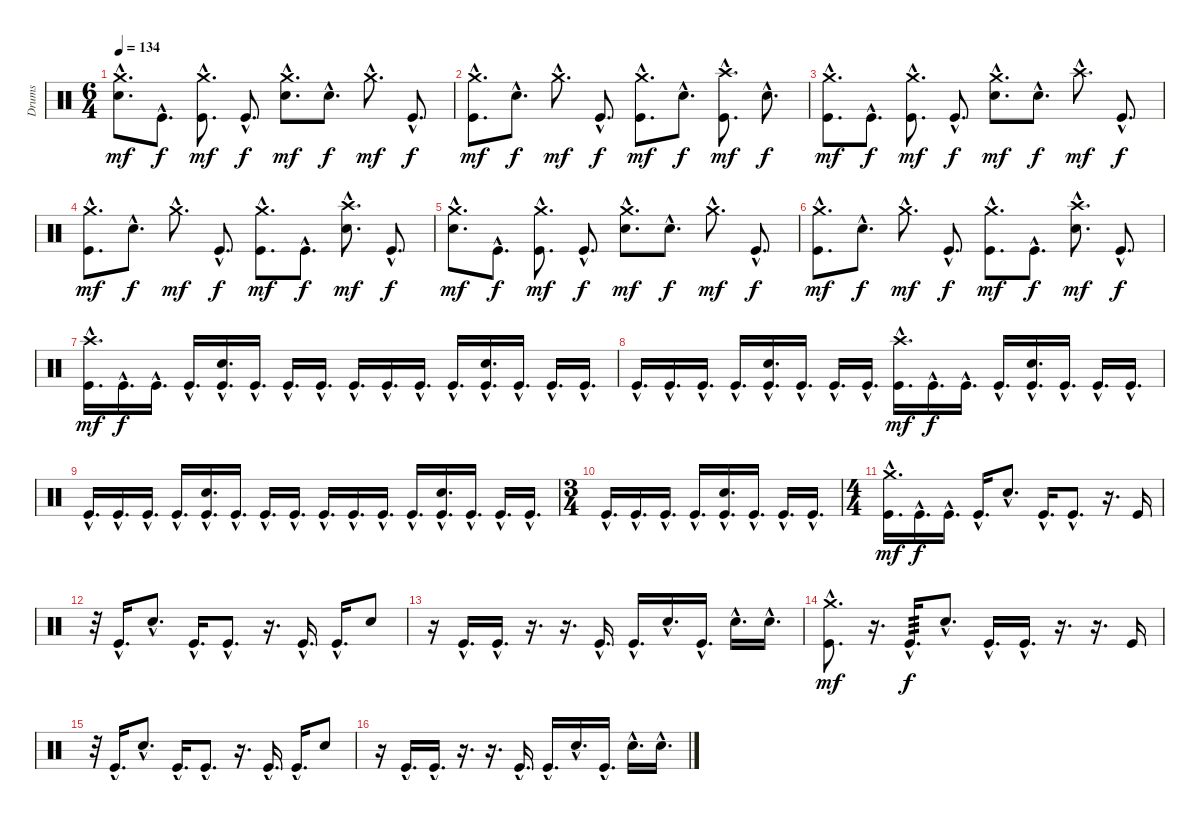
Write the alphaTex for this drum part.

\track ("Drums" "Drums") {instrument percussion}
\staff {score}
\articulation defaults
\ts (6 4)
\tempo 134
\clef neutral
\ks c
("Crash medium (hit)"{hac} "Electric Snare (hit)"{hac}).8{d dy mf} "Kick (hit)"{hac}.8{d dy f} ("Crash medium (hit)"{hac} "Kick (hit)"{hac}).8{d dy mf} "Kick (hit)"{hac}.8{d dy f} ("Crash medium (hit)"{hac} "Electric Snare (hit)"{hac}).8{d dy mf} "Electric Snare (hit)"{hac}.8{d dy f} "Crash medium (hit)"{hac}.8{d dy mf} "Kick (hit)"{hac}.8{d dy f} |
("Crash medium (hit)"{hac} "Kick (hit)"{hac}).8{d dy mf} "Electric Snare (hit)"{hac}.8{d dy f} "Crash medium (hit)"{hac}.8{d dy mf} "Kick (hit)"{hac}.8{d dy f} ("Crash medium (hit)"{hac} "Kick (hit)"{hac}).8{d dy mf} "Electric Snare (hit)"{hac}.8{d dy f} ("Crash high (hit)"{hac} "Kick (hit)"{hac}).8{d dy mf} "Electric Snare (hit)"{hac}.8{d dy f} |
("Crash medium (hit)"{hac} "Kick (hit)"{hac}).8{d dy mf} "Kick (hit)"{hac}.8{d dy f} ("Crash medium (hit)"{hac} "Kick (hit)"{hac}).8{d dy mf} "Kick (hit)"{hac}.8{d dy f} ("Crash medium (hit)"{hac} "Electric Snare (hit)"{hac}).8{d dy mf} "Electric Snare (hit)"{hac}.8{d dy f} "Crash high (hit)"{hac}.8{d dy mf} "Kick (hit)"{hac}.8{d dy f} |
("Crash medium (hit)"{hac} "Kick (hit)"{hac}).8{d dy mf} "Electric Snare (hit)"{hac}.8{d dy f} "Crash medium (hit)"{hac}.8{d dy mf} "Kick (hit)"{hac}.8{d dy f} ("Crash medium (hit)"{hac} "Kick (hit)"{hac}).8{d dy mf} "Kick (hit)"{hac}.8{d dy f} ("Crash high (hit)"{hac} "Electric Snare (hit)"{hac}).8{d dy mf} "Kick (hit)"{hac}.8{d dy f} |
("Crash medium (hit)"{hac} "Electric Snare (hit)"{hac}).8{d dy mf} "Kick (hit)"{hac}.8{d dy f} ("Crash medium (hit)"{hac} "Kick (hit)"{hac}).8{d dy mf} "Kick (hit)"{hac}.8{d dy f} ("Crash medium (hit)"{hac} "Electric Snare (hit)"{hac}).8{d dy mf} "Electric Snare (hit)"{hac}.8{d dy f} "Crash medium (hit)"{hac}.8{d dy mf} "Kick (hit)"{hac}.8{d dy f} |
("Crash medium (hit)"{hac} "Kick (hit)"{hac}).8{d dy mf} "Electric Snare (hit)"{hac}.8{d dy f} "Crash medium (hit)"{hac}.8{d dy mf} "Kick (hit)"{hac}.8{d dy f} ("Crash medium (hit)"{hac} "Kick (hit)"{hac}).8{d dy mf} "Kick (hit)"{hac}.8{d dy f} ("Crash high (hit)"{hac} "Electric Snare (hit)"{hac}).8{d dy mf} "Kick (hit)"{hac}.8{d dy f} |
\section ("" "")
("Crash high (hit)"{hac} "Kick (hit)"{hac}).16{d dy mf} "Kick (hit)"{hac}.16{d dy f} "Kick (hit)"{hac}.16{d} "Kick (hit)"{hac}.16{d} ("Electric Snare (hit)"{hac} "Kick (hit)"{hac}).16{d} "Kick (hit)"{hac}.16{d} "Kick (hit)"{hac}.16{d} "Kick (hit)"{hac}.16{d} "Kick (hit)"{hac}.16{d} "Kick (hit)"{hac}.16{d} "Kick (hit)"{hac}.16{d} "Kick (hit)"{hac}.16{d} ("Electric Snare (hit)"{hac} "Kick (hit)"{hac}).16{d} "Kick (hit)"{hac}.16{d} "Kick (hit)"{hac}.16{d} "Kick (hit)"{hac}.16{d} |
"Kick (hit)"{hac}.16{d} "Kick (hit)"{hac}.16{d} "Kick (hit)"{hac}.16{d} "Kick (hit)"{hac}.16{d} ("Electric Snare (hit)"{hac} "Kick (hit)"{hac}).16{d} "Kick (hit)"{hac}.16{d} "Kick (hit)"{hac}.16{d} "Kick (hit)"{hac}.16{d} ("Crash high (hit)"{hac} "Kick (hit)"{hac}).16{d dy mf} "Kick (hit)"{hac}.16{d dy f} "Kick (hit)"{hac}.16{d} "Kick (hit)"{hac}.16{d} ("Electric Snare (hit)"{hac} "Kick (hit)"{hac}).16{d} "Kick (hit)"{hac}.16{d} "Kick (hit)"{hac}.16{d} "Kick (hit)"{hac}.16{d} |
"Kick (hit)"{hac}.16{d} "Kick (hit)"{hac}.16{d} "Kick (hit)"{hac}.16{d} "Kick (hit)"{hac}.16{d} ("Electric Snare (hit)"{hac} "Kick (hit)"{hac}).16{d} "Kick (hit)"{hac}.16{d} "Kick (hit)"{hac}.16{d} "Kick (hit)"{hac}.16{d} "Kick (hit)"{hac}.16{d} "Kick (hit)"{hac}.16{d} "Kick (hit)"{hac}.16{d} "Kick (hit)"{hac}.16{d} ("Electric Snare (hit)"{hac} "Kick (hit)"{hac}).16{d} "Kick (hit)"{hac}.16{d} "Kick (hit)"{hac}.16{d} "Kick (hit)"{hac}.16{d} |
\ts (3 4)
"Kick (hit)"{hac}.16{d} "Kick (hit)"{hac}.16{d} "Kick (hit)"{hac}.16{d} "Kick (hit)"{hac}.16{d} ("Electric Snare (hit)"{hac} "Kick (hit)"{hac}).16{d} "Kick (hit)"{hac}.16{d} "Kick (hit)"{hac}.16{d} "Kick (hit)"{hac}.16{d} |
\ts (4 4)
("Crash medium (hit)"{hac} "Kick (hit)"{hac}).16{d dy mf} "Kick (hit)"{hac}.16{d dy f} "Kick (hit)"{hac}.16{d} "Kick (hit)"{hac}.16{d} "Electric Snare (hit)"{hac}.8{d} "Kick (hit)"{hac}.16{d} "Kick (hit)"{hac}.8{d} r.16{d} "Kick (hit)".16 |
r.32 "Kick (hit)"{hac}.16{d} "Electric Snare (hit)"{hac}.8{d} "Kick (hit)"{hac}.16{d} "Kick (hit)"{hac}.8{d} r.16{d} "Kick (hit)"{hac}.16{d} "Kick (hit)"{hac}.16{d} "Electric Snare (hit)".8 |
r.16 "Kick (hit)"{hac}.16{d} "Kick (hit)"{hac}.16{d} r.16{d} r.16{d} "Kick (hit)"{hac}.16{d} "Kick (hit)"{hac}.16{d} "Electric Snare (hit)"{hac}.16{d} "Kick (hit)"{hac}.16{d} "Electric Snare (hit)"{hac}.16{d} "Electric Snare (hit)"{hac}.16{d} |
("Crash medium (hit)"{hac} "Kick (hit)"{hac}).8{d dy mf} r.16{d} "Kick (hit)"{hac}.16{d tp 3 dy f} "Electric Snare (hit)"{hac}.8{d} "Kick (hit)"{hac}.16{d} "Kick (hit)"{hac}.16{d} r.16{d} r.16{d} "Kick (hit)".16 |
r.32 "Kick (hit)"{hac}.16{d} "Electric Snare (hit)"{hac}.8{d} "Kick (hit)"{hac}.16{d} "Kick (hit)"{hac}.8{d} r.16{d} "Kick (hit)"{hac}.16{d} "Kick (hit)"{hac}.16{d} "Electric Snare (hit)".8 |
r.16 "Kick (hit)"{hac}.16{d} "Kick (hit)"{hac}.16{d} r.16{d} r.16{d} "Kick (hit)"{hac}.16{d} "Kick (hit)"{hac}.16{d} "Electric Snare (hit)"{hac}.16{d} "Kick (hit)"{hac}.16{d} "Electric Snare (hit)"{hac}.16{d} "Electric Snare (hit)"{hac}.16{d}
